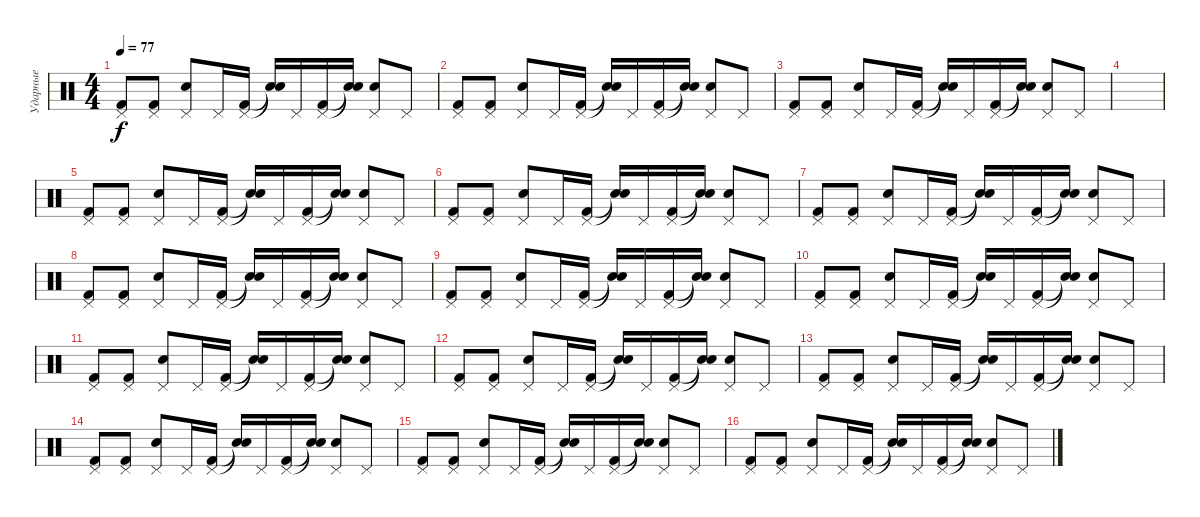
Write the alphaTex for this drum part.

\track ("Ударные" "Ударные") {instrument percussion}
\staff {score}
\articulation defaults
\ts (4 4)
\tempo 77
\clef neutral
\ks c
("Kick (hit) 2" "Pedal Hi-Hat (hit)").8{dy f} ("Kick (hit) 2" "Pedal Hi-Hat (hit)").8 ("Electric Snare (hit)" "Pedal Hi-Hat (hit)").8 "Pedal Hi-Hat (hit)".16 ("Kick (hit) 2" "Pedal Hi-Hat (hit)").16 ("Snare (hit)"{t} "Snare (hit)"{t}).16 "Pedal Hi-Hat (hit)".16 ("Kick (hit) 2" "Pedal Hi-Hat (hit)").16 ("Snare (hit)"{t} "Snare (hit)"{t}).16 ("Electric Snare (hit)" "Pedal Hi-Hat (hit)").8 "Pedal Hi-Hat (hit)".8 |
("Kick (hit) 2" "Pedal Hi-Hat (hit)").8 ("Kick (hit) 2" "Pedal Hi-Hat (hit)").8 ("Electric Snare (hit)" "Pedal Hi-Hat (hit)").8 "Pedal Hi-Hat (hit)".16 ("Kick (hit) 2" "Pedal Hi-Hat (hit)").16 ("Snare (hit)"{t} "Snare (hit)"{t}).16 "Pedal Hi-Hat (hit)".16 ("Kick (hit) 2" "Pedal Hi-Hat (hit)").16 ("Snare (hit)"{t} "Snare (hit)"{t}).16 ("Electric Snare (hit)" "Pedal Hi-Hat (hit)").8 "Pedal Hi-Hat (hit)".8 |
("Kick (hit) 2" "Pedal Hi-Hat (hit)").8 ("Kick (hit) 2" "Pedal Hi-Hat (hit)").8 ("Electric Snare (hit)" "Pedal Hi-Hat (hit)").8 "Pedal Hi-Hat (hit)".16 ("Kick (hit) 2" "Pedal Hi-Hat (hit)").16 ("Snare (hit)"{t} "Snare (hit)"{t}).16 "Pedal Hi-Hat (hit)".16 ("Kick (hit) 2" "Pedal Hi-Hat (hit)").16 ("Snare (hit)"{t} "Snare (hit)"{t}).16 ("Electric Snare (hit)" "Pedal Hi-Hat (hit)").8 "Pedal Hi-Hat (hit)".8 |
|
("Kick (hit) 2" "Pedal Hi-Hat (hit)").8 ("Kick (hit) 2" "Pedal Hi-Hat (hit)").8 ("Electric Snare (hit)" "Pedal Hi-Hat (hit)").8 "Pedal Hi-Hat (hit)".16 ("Kick (hit) 2" "Pedal Hi-Hat (hit)").16 ("Snare (hit)"{t} "Snare (hit)"{t}).16 "Pedal Hi-Hat (hit)".16 ("Kick (hit) 2" "Pedal Hi-Hat (hit)").16 ("Snare (hit)"{t} "Snare (hit)"{t}).16 ("Electric Snare (hit)" "Pedal Hi-Hat (hit)").8 "Pedal Hi-Hat (hit)".8 |
("Kick (hit) 2" "Pedal Hi-Hat (hit)").8 ("Kick (hit) 2" "Pedal Hi-Hat (hit)").8 ("Electric Snare (hit)" "Pedal Hi-Hat (hit)").8 "Pedal Hi-Hat (hit)".16 ("Kick (hit) 2" "Pedal Hi-Hat (hit)").16 ("Snare (hit)"{t} "Snare (hit)"{t}).16 "Pedal Hi-Hat (hit)".16 ("Kick (hit) 2" "Pedal Hi-Hat (hit)").16 ("Snare (hit)"{t} "Snare (hit)"{t}).16 ("Electric Snare (hit)" "Pedal Hi-Hat (hit)").8 "Pedal Hi-Hat (hit)".8 |
("Kick (hit) 2" "Pedal Hi-Hat (hit)").8 ("Kick (hit) 2" "Pedal Hi-Hat (hit)").8 ("Electric Snare (hit)" "Pedal Hi-Hat (hit)").8 "Pedal Hi-Hat (hit)".16 ("Kick (hit) 2" "Pedal Hi-Hat (hit)").16 ("Snare (hit)"{t} "Snare (hit)"{t}).16 "Pedal Hi-Hat (hit)".16 ("Kick (hit) 2" "Pedal Hi-Hat (hit)").16 ("Snare (hit)"{t} "Snare (hit)"{t}).16 ("Electric Snare (hit)" "Pedal Hi-Hat (hit)").8 "Pedal Hi-Hat (hit)".8 |
("Kick (hit) 2" "Pedal Hi-Hat (hit)").8 ("Kick (hit) 2" "Pedal Hi-Hat (hit)").8 ("Electric Snare (hit)" "Pedal Hi-Hat (hit)").8 "Pedal Hi-Hat (hit)".16 ("Kick (hit) 2" "Pedal Hi-Hat (hit)").16 ("Snare (hit)"{t} "Snare (hit)"{t}).16 "Pedal Hi-Hat (hit)".16 ("Kick (hit) 2" "Pedal Hi-Hat (hit)").16 ("Snare (hit)"{t} "Snare (hit)"{t}).16 ("Electric Snare (hit)" "Pedal Hi-Hat (hit)").8 "Pedal Hi-Hat (hit)".8 |
("Kick (hit) 2" "Pedal Hi-Hat (hit)").8 ("Kick (hit) 2" "Pedal Hi-Hat (hit)").8 ("Electric Snare (hit)" "Pedal Hi-Hat (hit)").8 "Pedal Hi-Hat (hit)".16 ("Kick (hit) 2" "Pedal Hi-Hat (hit)").16 ("Snare (hit)"{t} "Snare (hit)"{t}).16 "Pedal Hi-Hat (hit)".16 ("Kick (hit) 2" "Pedal Hi-Hat (hit)").16 ("Snare (hit)"{t} "Snare (hit)"{t}).16 ("Electric Snare (hit)" "Pedal Hi-Hat (hit)").8 "Pedal Hi-Hat (hit)".8 |
("Kick (hit) 2" "Pedal Hi-Hat (hit)").8 ("Kick (hit) 2" "Pedal Hi-Hat (hit)").8 ("Electric Snare (hit)" "Pedal Hi-Hat (hit)").8 "Pedal Hi-Hat (hit)".16 ("Kick (hit) 2" "Pedal Hi-Hat (hit)").16 ("Snare (hit)"{t} "Snare (hit)"{t}).16 "Pedal Hi-Hat (hit)".16 ("Kick (hit) 2" "Pedal Hi-Hat (hit)").16 ("Snare (hit)"{t} "Snare (hit)"{t}).16 ("Electric Snare (hit)" "Pedal Hi-Hat (hit)").8 "Pedal Hi-Hat (hit)".8 |
("Kick (hit) 2" "Pedal Hi-Hat (hit)").8 ("Kick (hit) 2" "Pedal Hi-Hat (hit)").8 ("Electric Snare (hit)" "Pedal Hi-Hat (hit)").8 "Pedal Hi-Hat (hit)".16 ("Kick (hit) 2" "Pedal Hi-Hat (hit)").16 ("Snare (hit)"{t} "Snare (hit)"{t}).16 "Pedal Hi-Hat (hit)".16 ("Kick (hit) 2" "Pedal Hi-Hat (hit)").16 ("Snare (hit)"{t} "Snare (hit)"{t}).16 ("Electric Snare (hit)" "Pedal Hi-Hat (hit)").8 "Pedal Hi-Hat (hit)".8 |
("Kick (hit) 2" "Pedal Hi-Hat (hit)").8 ("Kick (hit) 2" "Pedal Hi-Hat (hit)").8 ("Electric Snare (hit)" "Pedal Hi-Hat (hit)").8 "Pedal Hi-Hat (hit)".16 ("Kick (hit) 2" "Pedal Hi-Hat (hit)").16 ("Snare (hit)"{t} "Snare (hit)"{t}).16 "Pedal Hi-Hat (hit)".16 ("Kick (hit) 2" "Pedal Hi-Hat (hit)").16 ("Snare (hit)"{t} "Snare (hit)"{t}).16 ("Electric Snare (hit)" "Pedal Hi-Hat (hit)").8 "Pedal Hi-Hat (hit)".8 |
("Kick (hit) 2" "Pedal Hi-Hat (hit)").8 ("Kick (hit) 2" "Pedal Hi-Hat (hit)").8 ("Electric Snare (hit)" "Pedal Hi-Hat (hit)").8 "Pedal Hi-Hat (hit)".16 ("Kick (hit) 2" "Pedal Hi-Hat (hit)").16 ("Snare (hit)"{t} "Snare (hit)"{t}).16 "Pedal Hi-Hat (hit)".16 ("Kick (hit) 2" "Pedal Hi-Hat (hit)").16 ("Snare (hit)"{t} "Snare (hit)"{t}).16 ("Electric Snare (hit)" "Pedal Hi-Hat (hit)").8 "Pedal Hi-Hat (hit)".8 |
("Kick (hit) 2" "Pedal Hi-Hat (hit)").8 ("Kick (hit) 2" "Pedal Hi-Hat (hit)").8 ("Electric Snare (hit)" "Pedal Hi-Hat (hit)").8 "Pedal Hi-Hat (hit)".16 ("Kick (hit) 2" "Pedal Hi-Hat (hit)").16 ("Snare (hit)"{t} "Snare (hit)"{t}).16 "Pedal Hi-Hat (hit)".16 ("Kick (hit) 2" "Pedal Hi-Hat (hit)").16 ("Snare (hit)"{t} "Snare (hit)"{t}).16 ("Electric Snare (hit)" "Pedal Hi-Hat (hit)").8 "Pedal Hi-Hat (hit)".8 |
("Kick (hit) 2" "Pedal Hi-Hat (hit)").8 ("Kick (hit) 2" "Pedal Hi-Hat (hit)").8 ("Electric Snare (hit)" "Pedal Hi-Hat (hit)").8 "Pedal Hi-Hat (hit)".16 ("Kick (hit) 2" "Pedal Hi-Hat (hit)").16 ("Snare (hit)"{t} "Snare (hit)"{t}).16 "Pedal Hi-Hat (hit)".16 ("Kick (hit) 2" "Pedal Hi-Hat (hit)").16 ("Snare (hit)"{t} "Snare (hit)"{t}).16 ("Electric Snare (hit)" "Pedal Hi-Hat (hit)").8 "Pedal Hi-Hat (hit)".8 |
("Kick (hit) 2" "Pedal Hi-Hat (hit)").8 ("Kick (hit) 2" "Pedal Hi-Hat (hit)").8 ("Electric Snare (hit)" "Pedal Hi-Hat (hit)").8 "Pedal Hi-Hat (hit)".16 ("Kick (hit) 2" "Pedal Hi-Hat (hit)").16 ("Snare (hit)"{t} "Snare (hit)"{t}).16 "Pedal Hi-Hat (hit)".16 ("Kick (hit) 2" "Pedal Hi-Hat (hit)").16 ("Snare (hit)"{t} "Snare (hit)"{t}).16 ("Electric Snare (hit)" "Pedal Hi-Hat (hit)").8 "Pedal Hi-Hat (hit)".8
